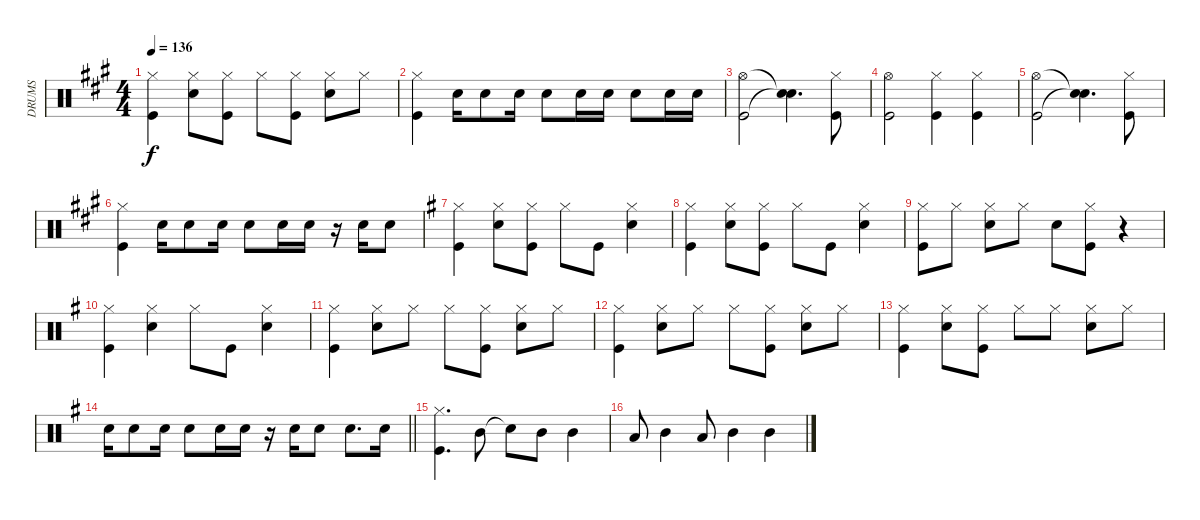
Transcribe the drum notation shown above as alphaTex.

\track ("DRUMS" "DRUMS") {instrument percussion}
\staff {score}
\articulation defaults
\ts (4 4)
\tempo 136
\clef neutral
\ks f#minor
("Hi-Hat (closed)" "Kick (hit)").4{dy f} ("Hi-Hat (closed)" "Snare (hit) 2").8 ("Hi-Hat (closed)" "Kick (hit)").8 "Hi-Hat (closed)".8 ("Hi-Hat (closed)" "Kick (hit)").8 ("Hi-Hat (closed)" "Snare (hit) 2").8 "Hi-Hat (closed)".8 |
("Hi-Hat (closed)" "Kick (hit)").4 "Snare (hit) 2".16 "Snare (hit) 2".8 "Snare (hit) 2".16 "Snare (hit) 2".8 "Snare (hit) 2".16 "Snare (hit) 2".16 "Snare (hit) 2".8 "Snare (hit) 2".16 "Snare (hit) 2".16 |
("Hi-Hat (open)" "Kick (hit)").2 ("Snare (hit)"{t} "Snare (hit)"{t}).4{d} ("Hi-Hat (closed)" "Kick (hit)").8 |
("Hi-Hat (open)" "Kick (hit)").2 ("Hi-Hat (closed)" "Kick (hit)").4 ("Hi-Hat (closed)" "Kick (hit)").4 |
("Hi-Hat (open)" "Kick (hit)").2 ("Snare (hit)"{t} "Snare (hit)"{t}).4{d} ("Hi-Hat (closed)" "Kick (hit)").8 |
("Hi-Hat (closed)" "Kick (hit)").4 "Snare (hit) 2".16 "Snare (hit) 2".8 "Snare (hit) 2".16 "Snare (hit) 2".8 "Snare (hit) 2".16 "Snare (hit) 2".16 r.16 "Snare (hit) 2".16 "Snare (hit) 2".8 |
\ks eminor
("Hi-Hat (closed)" "Kick (hit)").4 ("Hi-Hat (closed)" "Snare (hit) 2").8 ("Hi-Hat (closed)" "Kick (hit)").8 "Hi-Hat (closed)".8 "Kick (hit)".8 ("Hi-Hat (closed)" "Snare (hit) 2").4 |
("Hi-Hat (closed)" "Kick (hit)").4 ("Hi-Hat (closed)" "Snare (hit) 2").8 ("Hi-Hat (closed)" "Kick (hit)").8 "Hi-Hat (closed)".8 "Kick (hit)".8 ("Hi-Hat (closed)" "Snare (hit) 2").4 |
("Hi-Hat (closed)" "Kick (hit)").8 "Hi-Hat (closed)".8 ("Hi-Hat (closed)" "Snare (hit) 2").8 "Hi-Hat (closed)".8 "Snare (hit) 2".8 ("Hi-Hat (closed)" "Kick (hit)").8 r.4 |
("Hi-Hat (closed)" "Kick (hit)").4 ("Hi-Hat (closed)" "Snare (hit) 2").4 "Hi-Hat (closed)".8 "Kick (hit)".8 ("Hi-Hat (closed)" "Snare (hit) 2").4 |
("Hi-Hat (closed)" "Kick (hit)").4 ("Hi-Hat (closed)" "Snare (hit) 2").8 "Hi-Hat (closed)".8 "Hi-Hat (closed)".8 ("Hi-Hat (closed)" "Kick (hit)").8 ("Hi-Hat (closed)" "Snare (hit) 2").8 "Hi-Hat (closed)".8 |
("Hi-Hat (closed)" "Kick (hit)").4 ("Hi-Hat (closed)" "Snare (hit) 2").8 "Hi-Hat (closed)".8 "Hi-Hat (closed)".8 ("Hi-Hat (closed)" "Kick (hit)").8 ("Hi-Hat (closed)" "Snare (hit) 2").8 "Hi-Hat (closed)".8 |
("Hi-Hat (closed)" "Kick (hit)").4 ("Hi-Hat (closed)" "Snare (hit) 2").8 ("Hi-Hat (closed)" "Kick (hit)").8 "Hi-Hat (closed)".8 "Hi-Hat (closed)".8 ("Hi-Hat (closed)" "Snare (hit) 2").8 "Hi-Hat (closed)".8 |
\barLineRight lightlight "Snare (hit) 2".16 "Snare (hit) 2".8 "Snare (hit) 2".16 "Snare (hit) 2".8 "Snare (hit) 2".16 "Snare (hit) 2".16
r.16 "Snare (hit) 2".16 "Snare (hit) 2".8 "Snare (hit) 2".8{d} "Snare (hit) 2".16 |
("Hi-Hat (closed)" "Kick (hit)").4{d} "Mid Tom (hit)".8 "Snare (hit)"{t}.8 "Mid Tom (hit)".8 "Mid Tom (hit)".4 |
"Low Tom (hit)".8 "Mid Tom (hit)".4 "Low Tom (hit)".8 "Mid Tom (hit)".4 "Mid Tom (hit)".4
